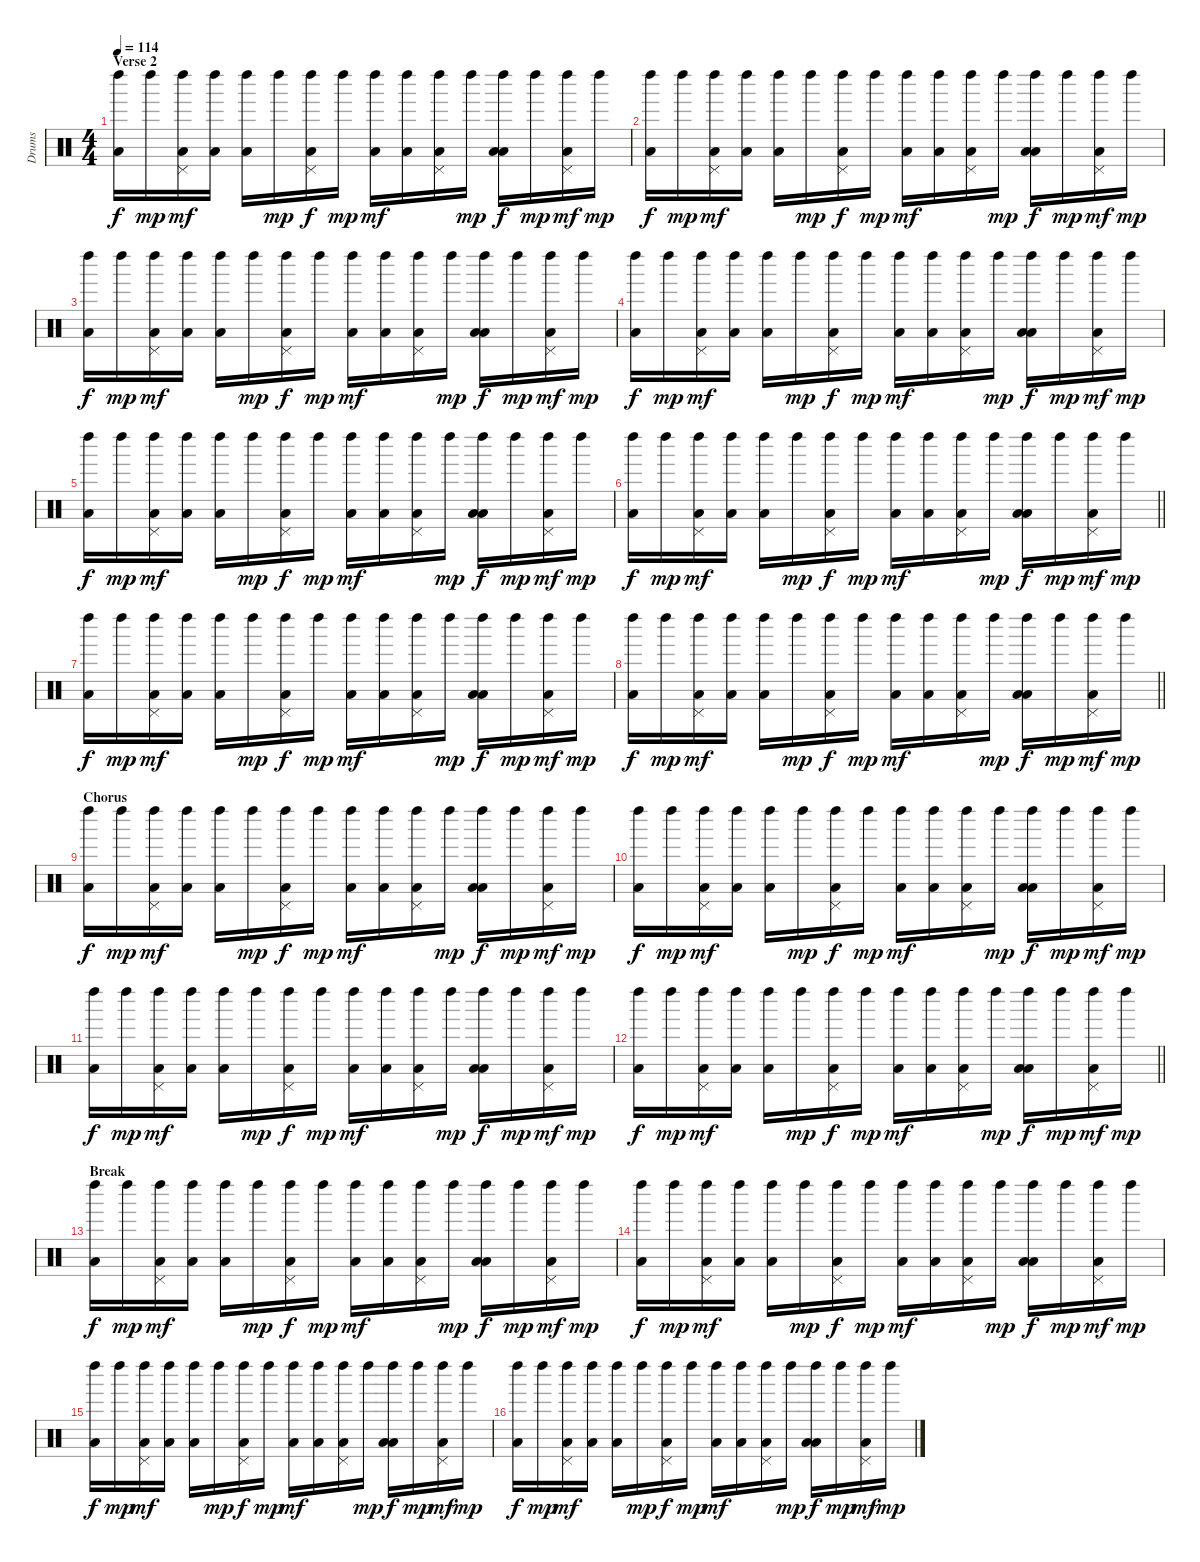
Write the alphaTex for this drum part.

\track ("Drums" "Drums") {instrument percussion}
\staff {score}
\articulation defaults
\ts (4 4)
\section ("" "Verse 2")
\tempo 114
\clef neutral
\ks c
("Left Maraca (hit)" "Low Floor Tom (hit)").16{dy f} "Left Maraca (hit)".16{dy mp} ("Pedal Hi-Hat (hit)" "Left Maraca (hit)" "Low Floor Tom (hit)").16{dy mf} ("Left Maraca (hit)" "Low Tom (hit)").16 ("Left Maraca (hit)" "Low Floor Tom (hit)").16 "Left Maraca (hit)".16{dy mp} ("Pedal Hi-Hat (hit)" "Left Maraca (hit)" "Low Floor Tom (hit)").16{dy f} "Left Maraca (hit)".16{dy mp} ("Left Maraca (hit)" "Low Floor Tom (hit)").16{dy mf} ("Left Maraca (hit)" "Low Tom (hit)").16 ("Pedal Hi-Hat (hit)" "Left Maraca (hit)" "Low Floor Tom (hit)").16 "Left Maraca (hit)".16{dy mp} ("Left Maraca (hit)" "Low Tom (hit)" "Low Floor Tom (hit)").16{dy f} "Left Maraca (hit)".16{dy mp} ("Pedal Hi-Hat (hit)" "Left Maraca (hit)" "Low Floor Tom (hit)").16{dy mf} "Left Maraca (hit)".16{dy mp} |
("Left Maraca (hit)" "Low Floor Tom (hit)").16{dy f} "Left Maraca (hit)".16{dy mp} ("Pedal Hi-Hat (hit)" "Left Maraca (hit)" "Low Floor Tom (hit)").16{dy mf} ("Left Maraca (hit)" "Low Tom (hit)").16 ("Left Maraca (hit)" "Low Floor Tom (hit)").16 "Left Maraca (hit)".16{dy mp} ("Pedal Hi-Hat (hit)" "Left Maraca (hit)" "Low Floor Tom (hit)").16{dy f} "Left Maraca (hit)".16{dy mp} ("Left Maraca (hit)" "Low Floor Tom (hit)").16{dy mf} ("Left Maraca (hit)" "Low Tom (hit)").16 ("Pedal Hi-Hat (hit)" "Left Maraca (hit)" "Low Floor Tom (hit)").16 "Left Maraca (hit)".16{dy mp} ("Left Maraca (hit)" "Low Tom (hit)" "Low Floor Tom (hit)").16{dy f} "Left Maraca (hit)".16{dy mp} ("Pedal Hi-Hat (hit)" "Left Maraca (hit)" "Low Floor Tom (hit)").16{dy mf} "Left Maraca (hit)".16{dy mp} |
("Left Maraca (hit)" "Low Floor Tom (hit)").16{dy f} "Left Maraca (hit)".16{dy mp} ("Pedal Hi-Hat (hit)" "Left Maraca (hit)" "Low Floor Tom (hit)").16{dy mf} ("Left Maraca (hit)" "Low Tom (hit)").16 ("Left Maraca (hit)" "Low Floor Tom (hit)").16 "Left Maraca (hit)".16{dy mp} ("Pedal Hi-Hat (hit)" "Left Maraca (hit)" "Low Floor Tom (hit)").16{dy f} "Left Maraca (hit)".16{dy mp} ("Left Maraca (hit)" "Low Floor Tom (hit)").16{dy mf} ("Left Maraca (hit)" "Low Tom (hit)").16 ("Pedal Hi-Hat (hit)" "Left Maraca (hit)" "Low Floor Tom (hit)").16 "Left Maraca (hit)".16{dy mp} ("Left Maraca (hit)" "Low Tom (hit)" "Low Floor Tom (hit)").16{dy f} "Left Maraca (hit)".16{dy mp} ("Pedal Hi-Hat (hit)" "Left Maraca (hit)" "Low Floor Tom (hit)").16{dy mf} "Left Maraca (hit)".16{dy mp} |
("Left Maraca (hit)" "Low Floor Tom (hit)").16{dy f} "Left Maraca (hit)".16{dy mp} ("Pedal Hi-Hat (hit)" "Left Maraca (hit)" "Low Floor Tom (hit)").16{dy mf} ("Left Maraca (hit)" "Low Tom (hit)").16 ("Left Maraca (hit)" "Low Floor Tom (hit)").16 "Left Maraca (hit)".16{dy mp} ("Pedal Hi-Hat (hit)" "Left Maraca (hit)" "Low Floor Tom (hit)").16{dy f} "Left Maraca (hit)".16{dy mp} ("Left Maraca (hit)" "Low Floor Tom (hit)").16{dy mf} ("Left Maraca (hit)" "Low Tom (hit)").16 ("Pedal Hi-Hat (hit)" "Left Maraca (hit)" "Low Floor Tom (hit)").16 "Left Maraca (hit)".16{dy mp} ("Left Maraca (hit)" "Low Tom (hit)" "Low Floor Tom (hit)").16{dy f} "Left Maraca (hit)".16{dy mp} ("Pedal Hi-Hat (hit)" "Left Maraca (hit)" "Low Floor Tom (hit)").16{dy mf} "Left Maraca (hit)".16{dy mp} |
("Left Maraca (hit)" "Low Floor Tom (hit)").16{dy f} "Left Maraca (hit)".16{dy mp} ("Pedal Hi-Hat (hit)" "Left Maraca (hit)" "Low Floor Tom (hit)").16{dy mf} ("Left Maraca (hit)" "Low Tom (hit)").16 ("Left Maraca (hit)" "Low Floor Tom (hit)").16 "Left Maraca (hit)".16{dy mp} ("Pedal Hi-Hat (hit)" "Left Maraca (hit)" "Low Floor Tom (hit)").16{dy f} "Left Maraca (hit)".16{dy mp} ("Left Maraca (hit)" "Low Floor Tom (hit)").16{dy mf} ("Left Maraca (hit)" "Low Tom (hit)").16 ("Pedal Hi-Hat (hit)" "Left Maraca (hit)" "Low Floor Tom (hit)").16 "Left Maraca (hit)".16{dy mp} ("Left Maraca (hit)" "Low Tom (hit)" "Low Floor Tom (hit)").16{dy f} "Left Maraca (hit)".16{dy mp} ("Pedal Hi-Hat (hit)" "Left Maraca (hit)" "Low Floor Tom (hit)").16{dy mf} "Left Maraca (hit)".16{dy mp} |
\barLineRight lightlight
("Left Maraca (hit)" "Low Floor Tom (hit)").16{dy f} "Left Maraca (hit)".16{dy mp} ("Pedal Hi-Hat (hit)" "Left Maraca (hit)" "Low Floor Tom (hit)").16{dy mf} ("Left Maraca (hit)" "Low Tom (hit)").16 ("Left Maraca (hit)" "Low Floor Tom (hit)").16 "Left Maraca (hit)".16{dy mp} ("Pedal Hi-Hat (hit)" "Left Maraca (hit)" "Low Floor Tom (hit)").16{dy f} "Left Maraca (hit)".16{dy mp} ("Left Maraca (hit)" "Low Floor Tom (hit)").16{dy mf} ("Left Maraca (hit)" "Low Tom (hit)").16 ("Pedal Hi-Hat (hit)" "Left Maraca (hit)" "Low Floor Tom (hit)").16 "Left Maraca (hit)".16{dy mp} ("Left Maraca (hit)" "Low Tom (hit)" "Low Floor Tom (hit)").16{dy f} "Left Maraca (hit)".16{dy mp} ("Pedal Hi-Hat (hit)" "Left Maraca (hit)" "Low Floor Tom (hit)").16{dy mf} "Left Maraca (hit)".16{dy mp} |
("Left Maraca (hit)" "Low Floor Tom (hit)").16{dy f} "Left Maraca (hit)".16{dy mp} ("Pedal Hi-Hat (hit)" "Left Maraca (hit)" "Low Floor Tom (hit)").16{dy mf} ("Left Maraca (hit)" "Low Tom (hit)").16 ("Left Maraca (hit)" "Low Floor Tom (hit)").16 "Left Maraca (hit)".16{dy mp} ("Pedal Hi-Hat (hit)" "Left Maraca (hit)" "Low Floor Tom (hit)").16{dy f} "Left Maraca (hit)".16{dy mp} ("Left Maraca (hit)" "Low Floor Tom (hit)").16{dy mf} ("Left Maraca (hit)" "Low Tom (hit)").16 ("Pedal Hi-Hat (hit)" "Left Maraca (hit)" "Low Floor Tom (hit)").16 "Left Maraca (hit)".16{dy mp} ("Left Maraca (hit)" "Low Tom (hit)" "Low Floor Tom (hit)").16{dy f} "Left Maraca (hit)".16{dy mp} ("Pedal Hi-Hat (hit)" "Left Maraca (hit)" "Low Floor Tom (hit)").16{dy mf} "Left Maraca (hit)".16{dy mp} |
\barLineRight lightlight
("Left Maraca (hit)" "Low Floor Tom (hit)").16{dy f} "Left Maraca (hit)".16{dy mp} ("Pedal Hi-Hat (hit)" "Left Maraca (hit)" "Low Floor Tom (hit)").16{dy mf} ("Left Maraca (hit)" "Low Tom (hit)").16 ("Left Maraca (hit)" "Low Floor Tom (hit)").16 "Left Maraca (hit)".16{dy mp} ("Pedal Hi-Hat (hit)" "Left Maraca (hit)" "Low Floor Tom (hit)").16{dy f} "Left Maraca (hit)".16{dy mp} ("Left Maraca (hit)" "Low Floor Tom (hit)").16{dy mf} ("Left Maraca (hit)" "Low Tom (hit)").16 ("Pedal Hi-Hat (hit)" "Left Maraca (hit)" "Low Floor Tom (hit)").16 "Left Maraca (hit)".16{dy mp} ("Left Maraca (hit)" "Low Tom (hit)" "Low Floor Tom (hit)").16{dy f} "Left Maraca (hit)".16{dy mp} ("Pedal Hi-Hat (hit)" "Left Maraca (hit)" "Low Floor Tom (hit)").16{dy mf} "Left Maraca (hit)".16{dy mp} |
\section ("" "Chorus")
("Left Maraca (hit)" "Low Floor Tom (hit)").16{dy f} "Left Maraca (hit)".16{dy mp} ("Pedal Hi-Hat (hit)" "Left Maraca (hit)" "Low Floor Tom (hit)").16{dy mf} ("Left Maraca (hit)" "Low Tom (hit)").16 ("Left Maraca (hit)" "Low Floor Tom (hit)").16 "Left Maraca (hit)".16{dy mp} ("Pedal Hi-Hat (hit)" "Left Maraca (hit)" "Low Floor Tom (hit)").16{dy f} "Left Maraca (hit)".16{dy mp} ("Left Maraca (hit)" "Low Floor Tom (hit)").16{dy mf} ("Left Maraca (hit)" "Low Tom (hit)").16 ("Pedal Hi-Hat (hit)" "Left Maraca (hit)" "Low Floor Tom (hit)").16 "Left Maraca (hit)".16{dy mp} ("Left Maraca (hit)" "Low Tom (hit)" "Low Floor Tom (hit)").16{dy f} "Left Maraca (hit)".16{dy mp} ("Pedal Hi-Hat (hit)" "Left Maraca (hit)" "Low Floor Tom (hit)").16{dy mf} "Left Maraca (hit)".16{dy mp} |
("Left Maraca (hit)" "Low Floor Tom (hit)").16{dy f} "Left Maraca (hit)".16{dy mp} ("Pedal Hi-Hat (hit)" "Left Maraca (hit)" "Low Floor Tom (hit)").16{dy mf} ("Left Maraca (hit)" "Low Tom (hit)").16 ("Left Maraca (hit)" "Low Floor Tom (hit)").16 "Left Maraca (hit)".16{dy mp} ("Pedal Hi-Hat (hit)" "Left Maraca (hit)" "Low Floor Tom (hit)").16{dy f} "Left Maraca (hit)".16{dy mp} ("Left Maraca (hit)" "Low Floor Tom (hit)").16{dy mf} ("Left Maraca (hit)" "Low Tom (hit)").16 ("Pedal Hi-Hat (hit)" "Left Maraca (hit)" "Low Floor Tom (hit)").16 "Left Maraca (hit)".16{dy mp} ("Left Maraca (hit)" "Low Tom (hit)" "Low Floor Tom (hit)").16{dy f} "Left Maraca (hit)".16{dy mp} ("Pedal Hi-Hat (hit)" "Left Maraca (hit)" "Low Floor Tom (hit)").16{dy mf} "Left Maraca (hit)".16{dy mp} |
("Left Maraca (hit)" "Low Floor Tom (hit)").16{dy f} "Left Maraca (hit)".16{dy mp} ("Pedal Hi-Hat (hit)" "Left Maraca (hit)" "Low Floor Tom (hit)").16{dy mf} ("Left Maraca (hit)" "Low Tom (hit)").16 ("Left Maraca (hit)" "Low Floor Tom (hit)").16 "Left Maraca (hit)".16{dy mp} ("Pedal Hi-Hat (hit)" "Left Maraca (hit)" "Low Floor Tom (hit)").16{dy f} "Left Maraca (hit)".16{dy mp} ("Left Maraca (hit)" "Low Floor Tom (hit)").16{dy mf} ("Left Maraca (hit)" "Low Tom (hit)").16 ("Pedal Hi-Hat (hit)" "Left Maraca (hit)" "Low Floor Tom (hit)").16 "Left Maraca (hit)".16{dy mp} ("Left Maraca (hit)" "Low Tom (hit)" "Low Floor Tom (hit)").16{dy f} "Left Maraca (hit)".16{dy mp} ("Pedal Hi-Hat (hit)" "Left Maraca (hit)" "Low Floor Tom (hit)").16{dy mf} "Left Maraca (hit)".16{dy mp} |
\barLineRight lightlight
("Left Maraca (hit)" "Low Floor Tom (hit)").16{dy f} "Left Maraca (hit)".16{dy mp} ("Pedal Hi-Hat (hit)" "Left Maraca (hit)" "Low Floor Tom (hit)").16{dy mf} ("Left Maraca (hit)" "Low Tom (hit)").16 ("Left Maraca (hit)" "Low Floor Tom (hit)").16 "Left Maraca (hit)".16{dy mp} ("Pedal Hi-Hat (hit)" "Left Maraca (hit)" "Low Floor Tom (hit)").16{dy f} "Left Maraca (hit)".16{dy mp} ("Left Maraca (hit)" "Low Floor Tom (hit)").16{dy mf} ("Left Maraca (hit)" "Low Tom (hit)").16 ("Pedal Hi-Hat (hit)" "Left Maraca (hit)" "Low Floor Tom (hit)").16 "Left Maraca (hit)".16{dy mp} ("Left Maraca (hit)" "Low Tom (hit)" "Low Floor Tom (hit)").16{dy f} "Left Maraca (hit)".16{dy mp} ("Pedal Hi-Hat (hit)" "Left Maraca (hit)" "Low Floor Tom (hit)").16{dy mf} "Left Maraca (hit)".16{dy mp} |
\section ("" "Break")
("Left Maraca (hit)" "Low Floor Tom (hit)").16{dy f} "Left Maraca (hit)".16{dy mp} ("Pedal Hi-Hat (hit)" "Left Maraca (hit)" "Low Floor Tom (hit)").16{dy mf} ("Left Maraca (hit)" "Low Tom (hit)").16 ("Left Maraca (hit)" "Low Floor Tom (hit)").16 "Left Maraca (hit)".16{dy mp} ("Pedal Hi-Hat (hit)" "Left Maraca (hit)" "Low Floor Tom (hit)").16{dy f} "Left Maraca (hit)".16{dy mp} ("Left Maraca (hit)" "Low Floor Tom (hit)").16{dy mf} ("Left Maraca (hit)" "Low Tom (hit)").16 ("Pedal Hi-Hat (hit)" "Left Maraca (hit)" "Low Floor Tom (hit)").16 "Left Maraca (hit)".16{dy mp} ("Left Maraca (hit)" "Low Tom (hit)" "Low Floor Tom (hit)").16{dy f} "Left Maraca (hit)".16{dy mp} ("Pedal Hi-Hat (hit)" "Left Maraca (hit)" "Low Floor Tom (hit)").16{dy mf} "Left Maraca (hit)".16{dy mp} |
("Left Maraca (hit)" "Low Floor Tom (hit)").16{dy f} "Left Maraca (hit)".16{dy mp} ("Pedal Hi-Hat (hit)" "Left Maraca (hit)" "Low Floor Tom (hit)").16{dy mf} ("Left Maraca (hit)" "Low Tom (hit)").16 ("Left Maraca (hit)" "Low Floor Tom (hit)").16 "Left Maraca (hit)".16{dy mp} ("Pedal Hi-Hat (hit)" "Left Maraca (hit)" "Low Floor Tom (hit)").16{dy f} "Left Maraca (hit)".16{dy mp} ("Left Maraca (hit)" "Low Floor Tom (hit)").16{dy mf} ("Left Maraca (hit)" "Low Tom (hit)").16 ("Pedal Hi-Hat (hit)" "Left Maraca (hit)" "Low Floor Tom (hit)").16 "Left Maraca (hit)".16{dy mp} ("Left Maraca (hit)" "Low Tom (hit)" "Low Floor Tom (hit)").16{dy f} "Left Maraca (hit)".16{dy mp} ("Pedal Hi-Hat (hit)" "Left Maraca (hit)" "Low Floor Tom (hit)").16{dy mf} "Left Maraca (hit)".16{dy mp} |
("Left Maraca (hit)" "Low Floor Tom (hit)").16{dy f} "Left Maraca (hit)".16{dy mp} ("Pedal Hi-Hat (hit)" "Left Maraca (hit)" "Low Floor Tom (hit)").16{dy mf} ("Left Maraca (hit)" "Low Tom (hit)").16 ("Left Maraca (hit)" "Low Floor Tom (hit)").16 "Left Maraca (hit)".16{dy mp} ("Pedal Hi-Hat (hit)" "Left Maraca (hit)" "Low Floor Tom (hit)").16{dy f} "Left Maraca (hit)".16{dy mp} ("Left Maraca (hit)" "Low Floor Tom (hit)").16{dy mf} ("Left Maraca (hit)" "Low Tom (hit)").16 ("Pedal Hi-Hat (hit)" "Left Maraca (hit)" "Low Floor Tom (hit)").16 "Left Maraca (hit)".16{dy mp} ("Left Maraca (hit)" "Low Tom (hit)" "Low Floor Tom (hit)").16{dy f} "Left Maraca (hit)".16{dy mp} ("Pedal Hi-Hat (hit)" "Left Maraca (hit)" "Low Floor Tom (hit)").16{dy mf} "Left Maraca (hit)".16{dy mp} |
("Left Maraca (hit)" "Low Floor Tom (hit)").16{dy f} "Left Maraca (hit)".16{dy mp} ("Pedal Hi-Hat (hit)" "Left Maraca (hit)" "Low Floor Tom (hit)").16{dy mf} ("Left Maraca (hit)" "Low Tom (hit)").16 ("Left Maraca (hit)" "Low Floor Tom (hit)").16 "Left Maraca (hit)".16{dy mp} ("Pedal Hi-Hat (hit)" "Left Maraca (hit)" "Low Floor Tom (hit)").16{dy f} "Left Maraca (hit)".16{dy mp} ("Left Maraca (hit)" "Low Floor Tom (hit)").16{dy mf} ("Left Maraca (hit)" "Low Tom (hit)").16 ("Pedal Hi-Hat (hit)" "Left Maraca (hit)" "Low Floor Tom (hit)").16 "Left Maraca (hit)".16{dy mp} ("Left Maraca (hit)" "Low Tom (hit)" "Low Floor Tom (hit)").16{dy f} "Left Maraca (hit)".16{dy mp} ("Pedal Hi-Hat (hit)" "Left Maraca (hit)" "Low Floor Tom (hit)").16{dy mf} "Left Maraca (hit)".16{dy mp}
